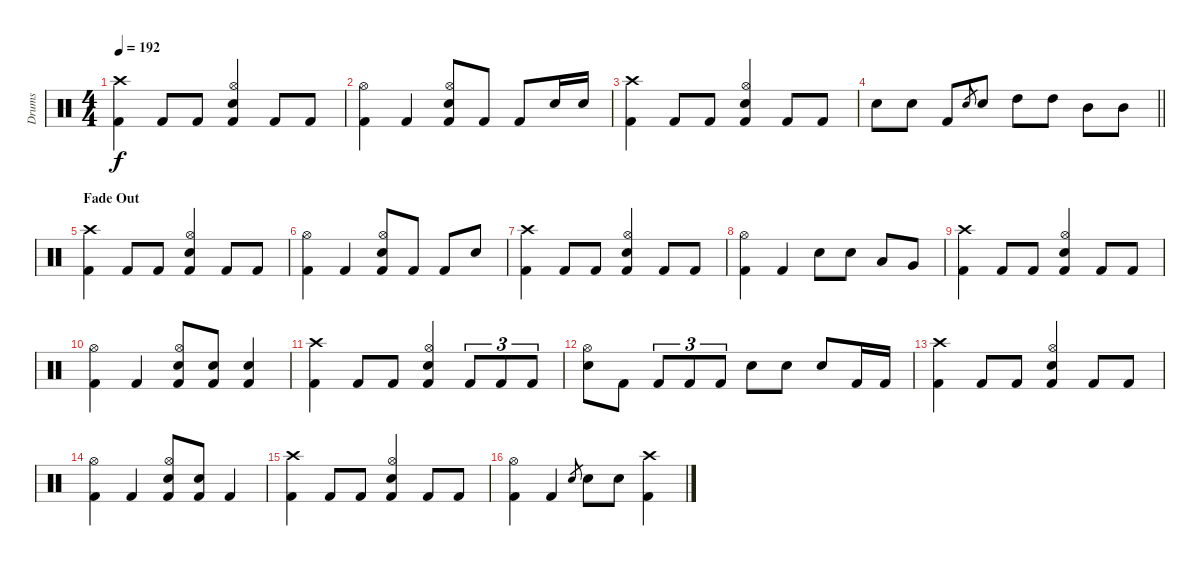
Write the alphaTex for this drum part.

\track ("Drums" "Drums") {instrument percussion}
\staff {score}
\articulation defaults
\ts (4 4)
\tempo 192
\clef neutral
\ks c
("Crash high (hit)" "Kick (hit) 2").4{dy f} "Kick (hit) 2".8 "Kick (hit) 2".8 ("Hi-Hat (open)" "Snare (hit) 2" "Kick (hit) 2").4 "Kick (hit) 2".8 "Kick (hit) 2".8 |
("Hi-Hat (open)" "Kick (hit) 2").4 "Kick (hit) 2".4 ("Hi-Hat (open)" "Snare (hit) 2" "Kick (hit) 2").8 "Kick (hit) 2".8 "Kick (hit) 2".8 "Snare (hit) 2".16 "Snare (hit) 2".16 |
("Crash high (hit)" "Kick (hit) 2").4 "Kick (hit) 2".8 "Kick (hit) 2".8 ("Hi-Hat (open)" "Snare (hit) 2" "Kick (hit) 2").4 "Kick (hit) 2".8 "Kick (hit) 2".8 |
\barLineRight lightlight "Snare (hit) 2".8 "Snare (hit) 2".8 "Kick (hit) 2".8 "Snare (hit) 2".8{gr} "Snare (hit) 2".8 "High Tom (hit)".8 "High Tom (hit)".8 "Mid Tom (hit)".8 "Mid Tom (hit)".8
|
\section ("" "Fade Out")
("Crash high (hit)" "Kick (hit) 2").4{volume 10} "Kick (hit) 2".8 "Kick (hit) 2".8 ("Hi-Hat (open)" "Snare (hit) 2" "Kick (hit) 2").4 "Kick (hit) 2".8 "Kick (hit) 2".8 |
("Hi-Hat (open)" "Kick (hit) 2").4 "Kick (hit) 2".4 ("Hi-Hat (open)" "Snare (hit) 2" "Kick (hit) 2").8 "Kick (hit) 2".8 "Kick (hit) 2".8 "Snare (hit) 2".8 |
("Crash high (hit)" "Kick (hit) 2").4 "Kick (hit) 2".8 "Kick (hit) 2".8 ("Hi-Hat (open)" "Snare (hit) 2" "Kick (hit) 2").4 "Kick (hit) 2".8 "Kick (hit) 2".8 |
("Hi-Hat (open)" "Kick (hit) 2").4 "Kick (hit) 2".4 "Snare (hit) 2".8 "Snare (hit) 2".8 "Low Tom (hit)".8 "Very Low Tom (hit)".8 |
("Crash high (hit)" "Kick (hit) 2").4{volume 5} "Kick (hit) 2".8 "Kick (hit) 2".8 ("Hi-Hat (open)" "Snare (hit) 2" "Kick (hit) 2").4 "Kick (hit) 2".8 "Kick (hit) 2".8 |
("Hi-Hat (open)" "Kick (hit) 2").4 "Kick (hit) 2".4 ("Hi-Hat (open)" "Snare (hit) 2" "Kick (hit) 2").8 ("Snare (hit) 2" "Kick (hit) 2").8 ("Snare (hit) 2" "Kick (hit) 2").4 |
("Crash high (hit)" "Kick (hit) 2").4 "Kick (hit) 2".8 "Kick (hit) 2".8 ("Hi-Hat (open)" "Snare (hit) 2" "Kick (hit) 2").4 "Kick (hit) 2".8{tu (3 2)} "Kick (hit) 2".8{tu (3 2)} "Kick (hit) 2".8{tu (3 2)} |
("Hi-Hat (open)" "Snare (hit) 2").8 "Kick (hit) 2".8 "Kick (hit) 2".8{tu (3 2)} "Kick (hit) 2".8{tu (3 2)} "Kick (hit) 2".8{tu (3 2)} "Snare (hit) 2".8 "Snare (hit) 2".8 "Snare (hit) 2".8 "Kick (hit) 2".16 "Kick (hit) 2".16 |
("Crash high (hit)" "Kick (hit) 2").4{volume 0} "Kick (hit) 2".8 "Kick (hit) 2".8 ("Hi-Hat (open)" "Snare (hit) 2" "Kick (hit) 2").4 "Kick (hit) 2".8 "Kick (hit) 2".8 |
("Hi-Hat (open)" "Kick (hit) 2").4 "Kick (hit) 2".4 ("Hi-Hat (open)" "Snare (hit) 2" "Kick (hit) 2").8 ("Snare (hit) 2" "Kick (hit) 2").8 "Kick (hit) 2".4 |
("Crash high (hit)" "Kick (hit) 2").4 "Kick (hit) 2".8 "Kick (hit) 2".8 ("Hi-Hat (open)" "Snare (hit) 2" "Kick (hit) 2").4 "Kick (hit) 2".8 "Kick (hit) 2".8 |
("Hi-Hat (open)" "Kick (hit) 2").4 "Kick (hit) 2".4 "Snare (hit) 2".8{gr} "Snare (hit) 2".8 "Snare (hit) 2".8 ("Crash high (hit)" "Kick (hit) 2").4
